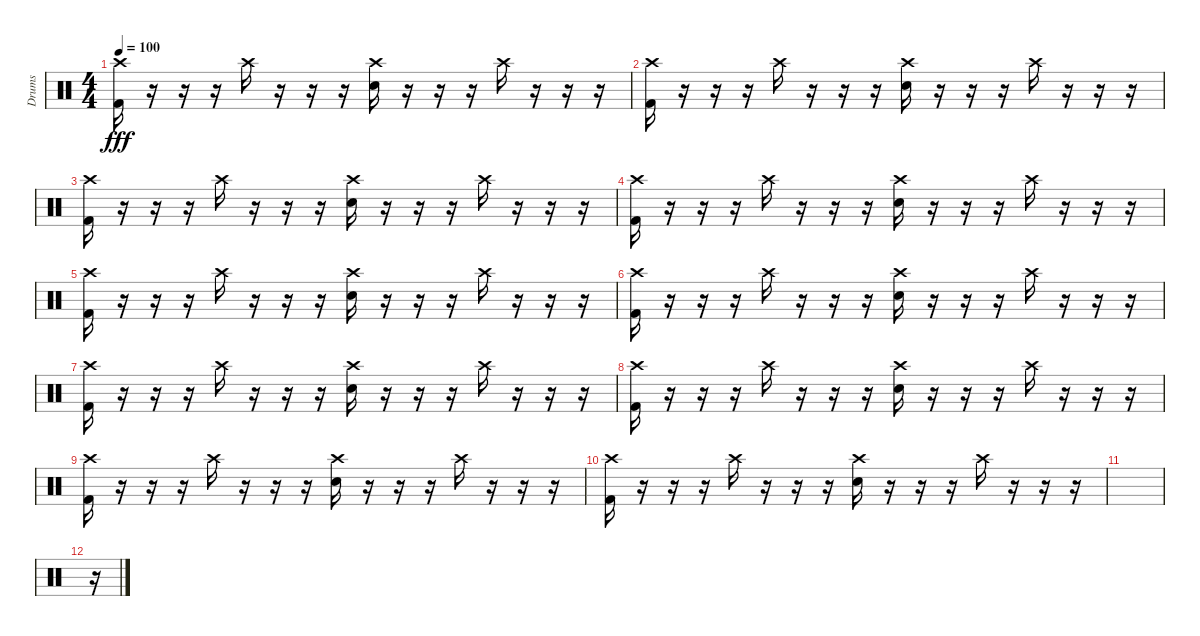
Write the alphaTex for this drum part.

\track ("Drums" "Drums") {instrument percussion}
\staff {score}
\articulation defaults
\ts (4 4)
\tempo 100
\clef neutral
\ks c
("Crash high (hit)" "Kick (hit) 2").16{dy fff} r.16 r.16 r.16 "Crash high (hit)".16 r.16 r.16 r.16 ("Crash high (hit)" "Electric Snare (hit)").16 r.16 r.16 r.16 "Crash high (hit)".16 r.16 r.16 r.16 |
("Crash high (hit)" "Kick (hit) 2").16 r.16 r.16 r.16 "Crash high (hit)".16 r.16 r.16 r.16 ("Crash high (hit)" "Electric Snare (hit)").16 r.16 r.16 r.16 "Crash high (hit)".16 r.16 r.16 r.16 |
("Crash high (hit)" "Kick (hit) 2").16 r.16 r.16 r.16 "Crash high (hit)".16 r.16 r.16 r.16 ("Crash high (hit)" "Electric Snare (hit)").16 r.16 r.16 r.16 "Crash high (hit)".16 r.16 r.16 r.16 |
("Crash high (hit)" "Kick (hit) 2").16 r.16 r.16 r.16 "Crash high (hit)".16 r.16 r.16 r.16 ("Crash high (hit)" "Electric Snare (hit)").16 r.16 r.16 r.16 "Crash high (hit)".16 r.16 r.16 r.16 |
("Crash high (hit)" "Kick (hit) 2").16 r.16 r.16 r.16 "Crash high (hit)".16 r.16 r.16 r.16 ("Crash high (hit)" "Electric Snare (hit)").16 r.16 r.16 r.16 "Crash high (hit)".16 r.16 r.16 r.16 |
("Crash high (hit)" "Kick (hit) 2").16 r.16 r.16 r.16 "Crash high (hit)".16 r.16 r.16 r.16 ("Crash high (hit)" "Electric Snare (hit)").16 r.16 r.16 r.16 "Crash high (hit)".16 r.16 r.16 r.16 |
("Crash high (hit)" "Kick (hit) 2").16 r.16 r.16 r.16 "Crash high (hit)".16 r.16 r.16 r.16 ("Crash high (hit)" "Electric Snare (hit)").16 r.16 r.16 r.16 "Crash high (hit)".16 r.16 r.16 r.16 |
("Crash high (hit)" "Kick (hit) 2").16 r.16 r.16 r.16 "Crash high (hit)".16 r.16 r.16 r.16 ("Crash high (hit)" "Electric Snare (hit)").16 r.16 r.16 r.16 "Crash high (hit)".16 r.16 r.16 r.16 |
("Crash high (hit)" "Kick (hit) 2").16 r.16 r.16 r.16 "Crash high (hit)".16 r.16 r.16 r.16 ("Crash high (hit)" "Electric Snare (hit)").16 r.16 r.16 r.16 "Crash high (hit)".16 r.16 r.16 r.16 |
("Crash high (hit)" "Kick (hit) 2").16 r.16 r.16 r.16 "Crash high (hit)".16 r.16 r.16 r.16 ("Crash high (hit)" "Electric Snare (hit)").16 r.16 r.16 r.16 "Crash high (hit)".16 r.16 r.16 r.16 |
|
r.16
